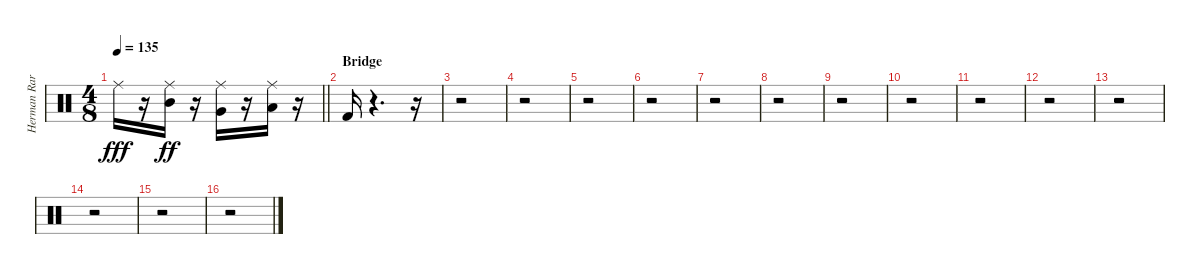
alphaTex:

\track ("Herman Rarebell" "Herman Rar") {instrument percussion}
\staff {score}
\articulation defaults
\ts (4 8)
\tempo 135
\clef neutral
\barLineRight lightlight
\ks c "Ride (middle)".16{dy fff}
r.16 ("Ride (middle)" "Mid Tom (hit)").16{dy ff} r.16 ("Ride (middle)" "Very Low Tom (hit)").16 r.16 ("Ride (middle)" "Low Floor Tom (hit)").16 r.16 |
\section ("" "Bridge")
"Kick (hit) 2".16 r.4{d} r.16 |
r.2 |
r.2 |
r.2 |
r.2 |
r.2 |
r.2 |
r.2 |
r.2 |
r.2 |
r.2 |
r.2 |
r.2 |
r.2 |
r.2
